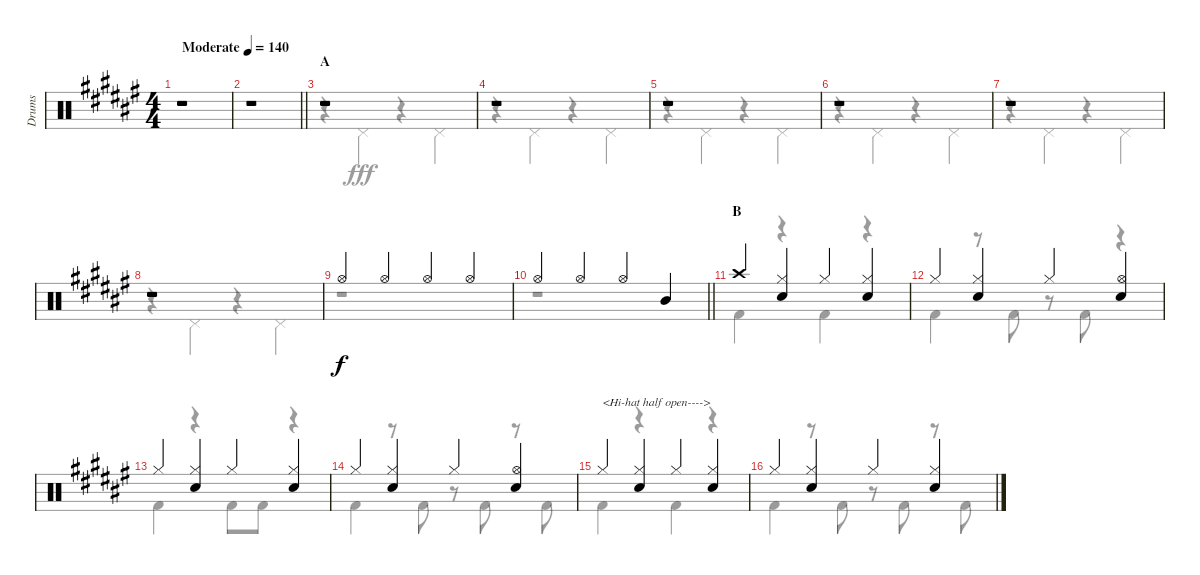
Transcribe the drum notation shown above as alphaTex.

\track ("Drums" "Drums") {instrument percussion}
\staff {score}
\articulation defaults
\voice
\ts (4 4)
\tempo (140 "Moderate")
\clef neutral
\ks f#
r.1{dy f} |
\barLineRight lightlight
r.1 |
\section ("" "A")
r.1 |
r.1 |
r.1 |
r.1 |
r.1 |
r.1 |
"Hi-Hat (open)".4 "Hi-Hat (open)".4 "Hi-Hat (open)".4 "Hi-Hat (open)".4 |
\barLineRight lightlight "Hi-Hat (open)".4 "Hi-Hat (open)".4 "Hi-Hat (open)".4 "Mid Tom (hit)".4
|
\section ("" "B")
"Crash high (hit)".4 ("Hi-Hat (closed)" "Snare (hit) 2").4 "Hi-Hat (closed)".4 ("Hi-Hat (closed)" "Snare (hit) 2").4 |
"Hi-Hat (closed)".4 ("Hi-Hat (closed)" "Snare (hit) 2").4 "Hi-Hat (closed)".4 ("Hi-Hat (open)" "Snare (hit) 2").4 |
"Hi-Hat (closed)".4 ("Hi-Hat (closed)" "Snare (hit) 2").4 "Hi-Hat (closed)".4 ("Hi-Hat (closed)" "Snare (hit) 2").4 |
"Hi-Hat (closed)".4 ("Hi-Hat (closed)" "Snare (hit) 2").4 "Hi-Hat (closed)".4 ("Hi-Hat (open)" "Snare (hit) 2").4 |
"Hi-Hat (closed)".4{txt "<Hi-hat half open---->"} ("Hi-Hat (closed)" "Snare (hit) 2").4 "Hi-Hat (closed)".4 ("Hi-Hat (closed)" "Snare (hit) 2").4 |
"Hi-Hat (closed)".4 ("Hi-Hat (closed)" "Snare (hit) 2").4 "Hi-Hat (closed)".4 ("Hi-Hat (closed)" "Snare (hit) 2").4
\voice
\clef neutral
\ottava regular
\simile none
\ks f#
r.1{dy fff} |
\barLineRight lightlight
r.1 |
r.4 "Pedal Hi-Hat (hit)".4 r.4 "Pedal Hi-Hat (hit)".4 |
r.4 "Pedal Hi-Hat (hit)".4 r.4 "Pedal Hi-Hat (hit)".4 |
r.4 "Pedal Hi-Hat (hit)".4 r.4 "Pedal Hi-Hat (hit)".4 |
r.4 "Pedal Hi-Hat (hit)".4 r.4 "Pedal Hi-Hat (hit)".4 |
r.4 "Pedal Hi-Hat (hit)".4 r.4 "Pedal Hi-Hat (hit)".4 |
r.4 "Pedal Hi-Hat (hit)".4 r.4 "Pedal Hi-Hat (hit)".4 |
r.1 |
\barLineRight lightlight
r.1 |
"Kick (hit) 2".4 r.4 "Kick (hit) 2".4 r.4 |
"Kick (hit) 2".4 r.8 "Kick (hit) 2".8 r.8 "Kick (hit) 2".8 r.4 |
"Kick (hit) 2".4 r.4 "Kick (hit) 2".8 "Kick (hit) 2".8 r.4 |
"Kick (hit) 2".4 r.8 "Kick (hit) 2".8 r.8 "Kick (hit) 2".8 r.8 "Kick (hit) 2".8 |
"Kick (hit) 2".4 r.4 "Kick (hit) 2".4 r.4 |
"Kick (hit) 2".4 r.8 "Kick (hit) 2".8 r.8 "Kick (hit) 2".8 r.8 "Kick (hit) 2".8
